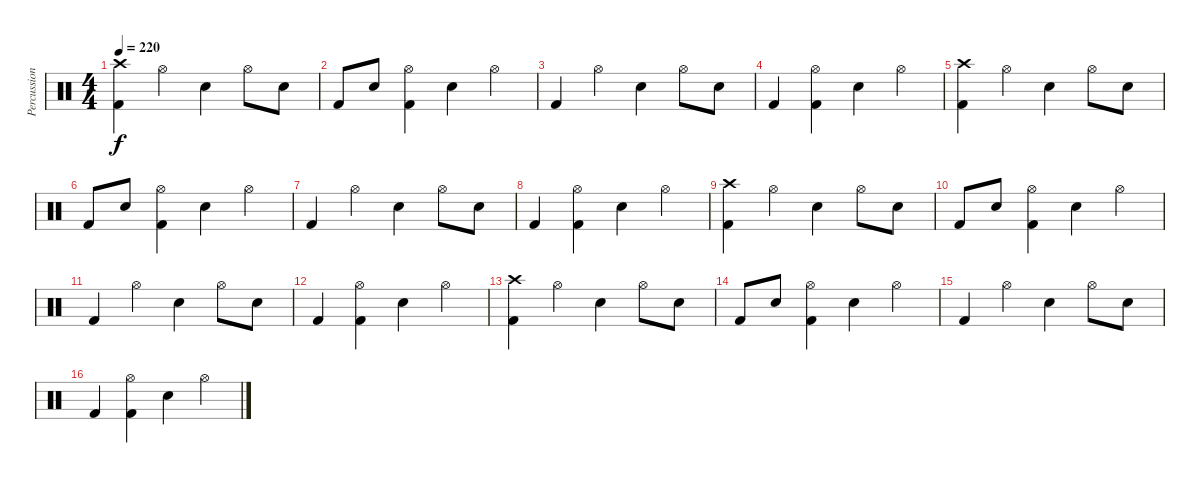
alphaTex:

\track ("Percussion" "Percussion") {instrument percussion}
\staff {score}
\articulation defaults
\ts (4 4)
\tempo 220
\clef neutral
\ks c
("Crash high (hit)" "Kick (hit) 2").4{dy f} "Hi-Hat (open)".4 "Electric Snare (hit)".4 "Hi-Hat (open)".8 "Electric Snare (hit)".8 |
"Kick (hit) 2".8 "Electric Snare (hit)".8 ("Hi-Hat (open)" "Kick (hit) 2").4 "Electric Snare (hit)".4 "Hi-Hat (open)".4 |
"Kick (hit) 2".4 "Hi-Hat (open)".4 "Electric Snare (hit)".4 "Hi-Hat (open)".8 "Electric Snare (hit)".8 |
"Kick (hit) 2".4 ("Hi-Hat (open)" "Kick (hit) 2").4 "Electric Snare (hit)".4 "Hi-Hat (open)".4 |
("Crash high (hit)" "Kick (hit) 2").4 "Hi-Hat (open)".4 "Electric Snare (hit)".4 "Hi-Hat (open)".8 "Electric Snare (hit)".8 |
"Kick (hit) 2".8 "Electric Snare (hit)".8 ("Hi-Hat (open)" "Kick (hit) 2").4 "Electric Snare (hit)".4 "Hi-Hat (open)".4 |
"Kick (hit) 2".4 "Hi-Hat (open)".4 "Electric Snare (hit)".4 "Hi-Hat (open)".8 "Electric Snare (hit)".8 |
"Kick (hit) 2".4 ("Hi-Hat (open)" "Kick (hit) 2").4 "Electric Snare (hit)".4 "Hi-Hat (open)".4 |
("Crash high (hit)" "Kick (hit) 2").4 "Hi-Hat (open)".4 "Electric Snare (hit)".4 "Hi-Hat (open)".8 "Electric Snare (hit)".8 |
"Kick (hit) 2".8 "Electric Snare (hit)".8 ("Hi-Hat (open)" "Kick (hit) 2").4 "Electric Snare (hit)".4 "Hi-Hat (open)".4 |
"Kick (hit) 2".4 "Hi-Hat (open)".4 "Electric Snare (hit)".4 "Hi-Hat (open)".8 "Electric Snare (hit)".8 |
"Kick (hit) 2".4 ("Hi-Hat (open)" "Kick (hit) 2").4 "Electric Snare (hit)".4 "Hi-Hat (open)".4 |
("Crash high (hit)" "Kick (hit) 2").4 "Hi-Hat (open)".4 "Electric Snare (hit)".4 "Hi-Hat (open)".8 "Electric Snare (hit)".8 |
"Kick (hit) 2".8 "Electric Snare (hit)".8 ("Hi-Hat (open)" "Kick (hit) 2").4 "Electric Snare (hit)".4 "Hi-Hat (open)".4 |
"Kick (hit) 2".4 "Hi-Hat (open)".4 "Electric Snare (hit)".4 "Hi-Hat (open)".8 "Electric Snare (hit)".8 |
"Kick (hit) 2".4 ("Hi-Hat (open)" "Kick (hit) 2").4 "Electric Snare (hit)".4 "Hi-Hat (open)".4
